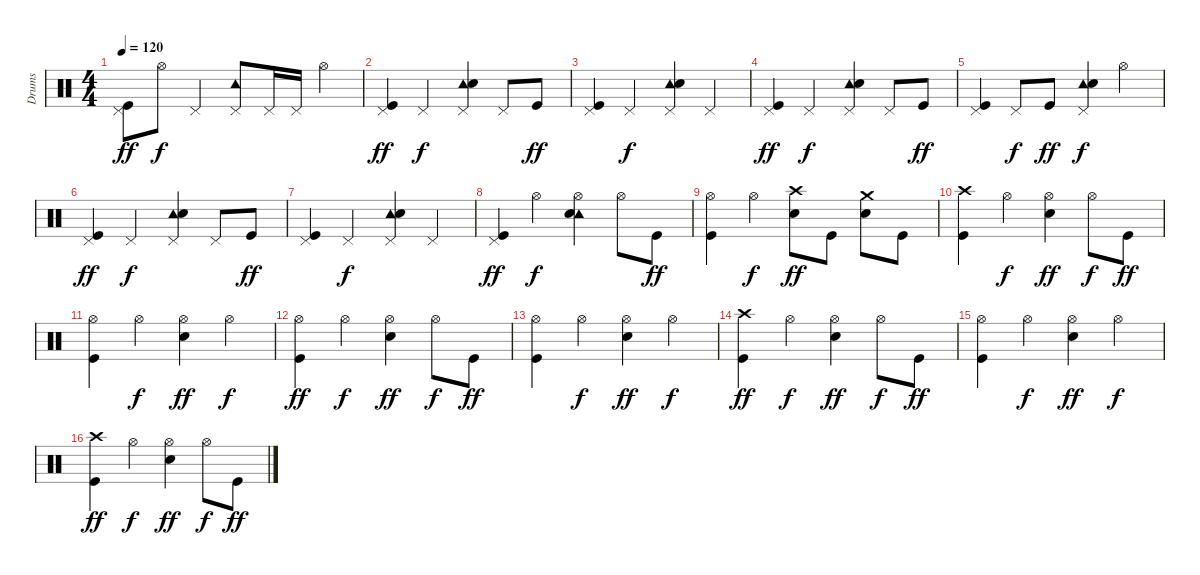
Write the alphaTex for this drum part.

\track ("Drums" "Drums") {instrument percussion}
\staff {score}
\articulation defaults
\ts (4 4)
\tempo 120
\clef neutral
\ks c
("Pedal Hi-Hat (hit)" "Kick (hit)").8{dy ff} "Hi-Hat (open)".8{dy f} "Pedal Hi-Hat (hit)".4 ("Pedal Hi-Hat (hit)" "Tambourine (hit)").8 "Pedal Hi-Hat (hit)".16 "Pedal Hi-Hat (hit)".16 "Hi-Hat (open)".4 |
("Pedal Hi-Hat (hit)" "Kick (hit)").4{dy ff} "Pedal Hi-Hat (hit)".4{dy f} ("Pedal Hi-Hat (hit)" "Tambourine (hit)" "Electric Snare (hit)").4 "Pedal Hi-Hat (hit)".8 "Kick (hit)".8{dy ff} |
("Pedal Hi-Hat (hit)" "Kick (hit)").4 "Pedal Hi-Hat (hit)".4{dy f} ("Pedal Hi-Hat (hit)" "Tambourine (hit)" "Electric Snare (hit)").4 "Pedal Hi-Hat (hit)".4 |
("Pedal Hi-Hat (hit)" "Kick (hit)").4{dy ff} "Pedal Hi-Hat (hit)".4{dy f} ("Pedal Hi-Hat (hit)" "Tambourine (hit)" "Electric Snare (hit)").4 "Pedal Hi-Hat (hit)".8 "Kick (hit)".8{dy ff} |
("Pedal Hi-Hat (hit)" "Kick (hit)").4 "Pedal Hi-Hat (hit)".8{dy f} "Kick (hit)".8{dy ff} ("Pedal Hi-Hat (hit)" "Tambourine (hit)" "Electric Snare (hit)").4{dy f} "Hi-Hat (open)".4 |
("Pedal Hi-Hat (hit)" "Kick (hit)").4{dy ff} "Pedal Hi-Hat (hit)".4{dy f} ("Pedal Hi-Hat (hit)" "Tambourine (hit)" "Electric Snare (hit)").4 "Pedal Hi-Hat (hit)".8 "Kick (hit)".8{dy ff} |
("Pedal Hi-Hat (hit)" "Kick (hit)").4 "Pedal Hi-Hat (hit)".4{dy f} ("Pedal Hi-Hat (hit)" "Tambourine (hit)" "Electric Snare (hit)").4 "Pedal Hi-Hat (hit)".4 |
("Pedal Hi-Hat (hit)" "Kick (hit)").4{dy ff} "Hi-Hat (open)".4{dy f} ("Hi-Hat (open)" "Tambourine (hit)" "Electric Snare (hit)").4 "Hi-Hat (open)".8 "Kick (hit)".8{dy ff} |
("Hi-Hat (open)" "Kick (hit)").4 "Hi-Hat (open)".4{dy f} ("Crash high (hit)" "Electric Snare (hit)").8{dy ff} "Kick (hit)".8 ("Crash medium (hit)" "Electric Snare (hit)").8 "Kick (hit)".8 |
("Crash high (hit)" "Kick (hit)").4 "Hi-Hat (open)".4{dy f} ("Hi-Hat (open)" "Electric Snare (hit)").4{dy ff} "Hi-Hat (open)".8{dy f} "Kick (hit)".8{dy ff} |
("Hi-Hat (open)" "Kick (hit)").4 "Hi-Hat (open)".4{dy f} ("Hi-Hat (open)" "Electric Snare (hit)").4{dy ff} "Hi-Hat (open)".4{dy f} |
("Hi-Hat (open)" "Kick (hit)").4{dy ff} "Hi-Hat (open)".4{dy f} ("Hi-Hat (open)" "Electric Snare (hit)").4{dy ff} "Hi-Hat (open)".8{dy f} "Kick (hit)".8{dy ff} |
("Hi-Hat (open)" "Kick (hit)").4 "Hi-Hat (open)".4{dy f} ("Hi-Hat (open)" "Electric Snare (hit)").4{dy ff} "Hi-Hat (open)".4{dy f} |
("Crash high (hit)" "Kick (hit)").4{dy ff} "Hi-Hat (open)".4{dy f} ("Hi-Hat (open)" "Electric Snare (hit)").4{dy ff} "Hi-Hat (open)".8{dy f} "Kick (hit)".8{dy ff} |
("Hi-Hat (open)" "Kick (hit)").4 "Hi-Hat (open)".4{dy f} ("Hi-Hat (open)" "Electric Snare (hit)").4{dy ff} "Hi-Hat (open)".4{dy f} |
("Crash high (hit)" "Kick (hit)").4{dy ff} "Hi-Hat (open)".4{dy f} ("Hi-Hat (open)" "Electric Snare (hit)").4{dy ff} "Hi-Hat (open)".8{dy f} "Kick (hit)".8{dy ff}
